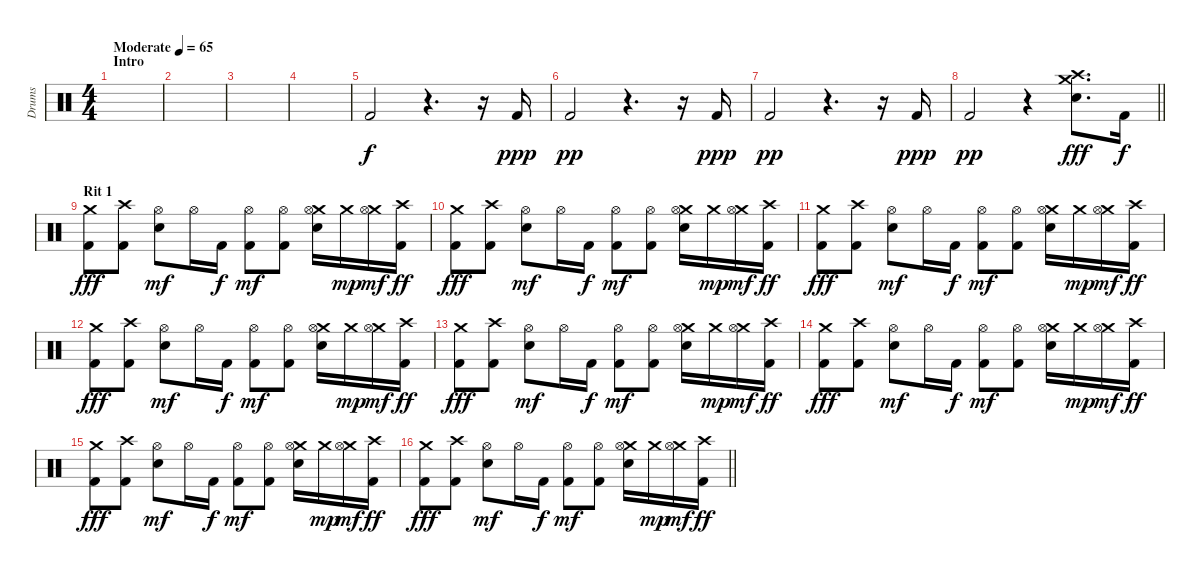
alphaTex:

\track ("Drums" "Drums") {instrument percussion}
\staff {score}
\articulation defaults
\ts (4 4)
\section ("" "Intro")
\tempo (65 "Moderate")
\clef neutral
\ks c
|
|
|
|
"Kick (hit) 2".2 r.4{d} r.16 "Kick (hit) 2".16{dy ppp} |
"Kick (hit) 2".2{dy pp} r.4{d} r.16 "Kick (hit) 2".16{dy ppp} |
"Kick (hit) 2".2{dy pp} r.4{d} r.16 "Kick (hit) 2".16{dy ppp} |
\barLineRight lightlight "Kick (hit) 2".2{dy pp}
r.4 ("Crash medium (hit)" "Crash high (hit)" "Electric Snare (hit)").8{d dy fff} "Kick (hit) 2".16{dy f} |
\section ("" "Rit 1")
("Crash medium (hit)" "Kick (hit) 2").8{dy fff} ("Crash high (hit)" "Kick (hit) 2").8 ("Hi-Hat (open)" "Electric Snare (hit)").8{dy mf} "Hi-Hat (open)".16 "Kick (hit) 2".16{dy f} ("Hi-Hat (open)" "Kick (hit) 2").8{dy mf} ("Hi-Hat (open)" "Kick (hit) 2").8 ("Crash medium (hit)" "Hi-Hat (open)" "Electric Snare (hit)").16 "Crash medium (hit)".16{dy mp} ("Crash medium (hit)" "Hi-Hat (open)").16{dy mf} ("Crash high (hit)" "Kick (hit) 2").16{dy ff} |
("Crash medium (hit)" "Kick (hit) 2").8{dy fff} ("Crash high (hit)" "Kick (hit) 2").8 ("Hi-Hat (open)" "Electric Snare (hit)").8{dy mf} "Hi-Hat (open)".16 "Kick (hit) 2".16{dy f} ("Hi-Hat (open)" "Kick (hit) 2").8{dy mf} ("Hi-Hat (open)" "Kick (hit) 2").8 ("Crash medium (hit)" "Hi-Hat (open)" "Electric Snare (hit)").16 "Crash medium (hit)".16{dy mp} ("Crash medium (hit)" "Hi-Hat (open)").16{dy mf} ("Crash high (hit)" "Kick (hit) 2").16{dy ff} |
("Crash medium (hit)" "Kick (hit) 2").8{dy fff} ("Crash high (hit)" "Kick (hit) 2").8 ("Hi-Hat (open)" "Electric Snare (hit)").8{dy mf} "Hi-Hat (open)".16 "Kick (hit) 2".16{dy f} ("Hi-Hat (open)" "Kick (hit) 2").8{dy mf} ("Hi-Hat (open)" "Kick (hit) 2").8 ("Crash medium (hit)" "Hi-Hat (open)" "Electric Snare (hit)").16 "Crash medium (hit)".16{dy mp} ("Crash medium (hit)" "Hi-Hat (open)").16{dy mf} ("Crash high (hit)" "Kick (hit) 2").16{dy ff} |
("Crash medium (hit)" "Kick (hit) 2").8{dy fff} ("Crash high (hit)" "Kick (hit) 2").8 ("Hi-Hat (open)" "Electric Snare (hit)").8{dy mf} "Hi-Hat (open)".16 "Kick (hit) 2".16{dy f} ("Hi-Hat (open)" "Kick (hit) 2").8{dy mf} ("Hi-Hat (open)" "Kick (hit) 2").8 ("Crash medium (hit)" "Hi-Hat (open)" "Electric Snare (hit)").16 "Crash medium (hit)".16{dy mp} ("Crash medium (hit)" "Hi-Hat (open)").16{dy mf} ("Crash high (hit)" "Kick (hit) 2").16{dy ff} |
("Crash medium (hit)" "Kick (hit) 2").8{dy fff} ("Crash high (hit)" "Kick (hit) 2").8 ("Hi-Hat (open)" "Electric Snare (hit)").8{dy mf} "Hi-Hat (open)".16 "Kick (hit) 2".16{dy f} ("Hi-Hat (open)" "Kick (hit) 2").8{dy mf} ("Hi-Hat (open)" "Kick (hit) 2").8 ("Crash medium (hit)" "Hi-Hat (open)" "Electric Snare (hit)").16 "Crash medium (hit)".16{dy mp} ("Crash medium (hit)" "Hi-Hat (open)").16{dy mf} ("Crash high (hit)" "Kick (hit) 2").16{dy ff} |
("Crash medium (hit)" "Kick (hit) 2").8{dy fff} ("Crash high (hit)" "Kick (hit) 2").8 ("Hi-Hat (open)" "Electric Snare (hit)").8{dy mf} "Hi-Hat (open)".16 "Kick (hit) 2".16{dy f} ("Hi-Hat (open)" "Kick (hit) 2").8{dy mf} ("Hi-Hat (open)" "Kick (hit) 2").8 ("Crash medium (hit)" "Hi-Hat (open)" "Electric Snare (hit)").16 "Crash medium (hit)".16{dy mp} ("Crash medium (hit)" "Hi-Hat (open)").16{dy mf} ("Crash high (hit)" "Kick (hit) 2").16{dy ff} |
("Crash medium (hit)" "Kick (hit) 2").8{dy fff} ("Crash high (hit)" "Kick (hit) 2").8 ("Hi-Hat (open)" "Electric Snare (hit)").8{dy mf} "Hi-Hat (open)".16 "Kick (hit) 2".16{dy f} ("Hi-Hat (open)" "Kick (hit) 2").8{dy mf} ("Hi-Hat (open)" "Kick (hit) 2").8 ("Crash medium (hit)" "Hi-Hat (open)" "Electric Snare (hit)").16 "Crash medium (hit)".16{dy mp} ("Crash medium (hit)" "Hi-Hat (open)").16{dy mf} ("Crash high (hit)" "Kick (hit) 2").16{dy ff} |
\barLineRight lightlight
("Crash medium (hit)" "Kick (hit) 2").8{dy fff} ("Crash high (hit)" "Kick (hit) 2").8 ("Hi-Hat (open)" "Electric Snare (hit)").8{dy mf} "Hi-Hat (open)".16 "Kick (hit) 2".16{dy f} ("Hi-Hat (open)" "Kick (hit) 2").8{dy mf} ("Hi-Hat (open)" "Kick (hit) 2").8 ("Crash medium (hit)" "Hi-Hat (open)" "Electric Snare (hit)").16 "Crash medium (hit)".16{dy mp} ("Crash medium (hit)" "Hi-Hat (open)").16{dy mf} ("Crash high (hit)" "Kick (hit) 2").16{dy ff}
